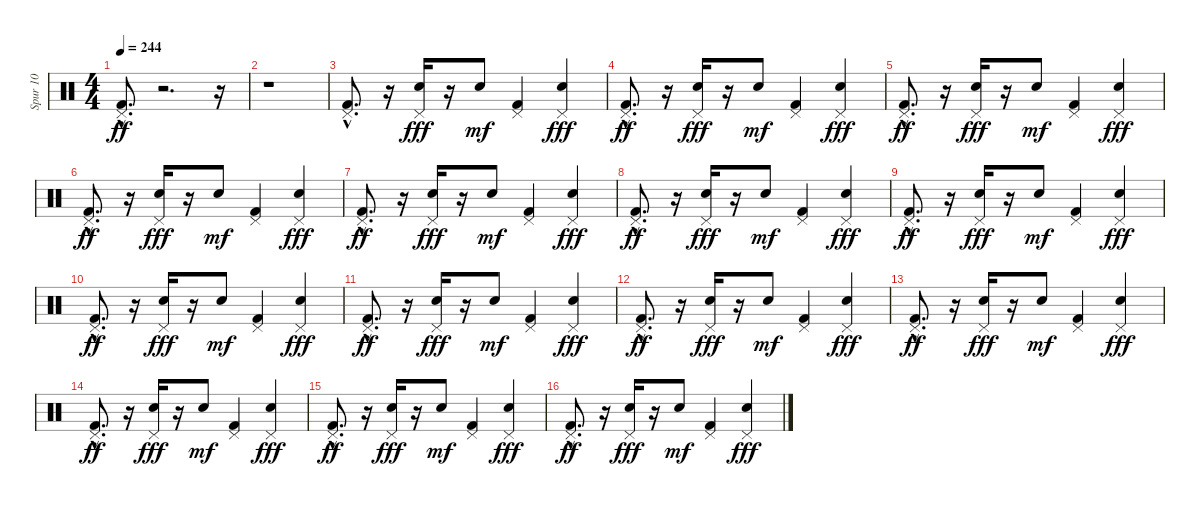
\track ("Spur 10" "Spur 10") {instrument percussion}
\staff {score}
\articulation defaults
\ts (4 4)
\tempo 244
\clef neutral
\ks c
("Pedal Hi-Hat (hit)" "Kick (hit) 2"{hac}).8{d dy ff} r.2{d} r.16 |
r.1 |
("Pedal Hi-Hat (hit)" "Kick (hit) 2"{hac}).8{d} r.16 ("Pedal Hi-Hat (hit)" "Electric Snare (hit)").16{dy fff} r.16 "Electric Snare (hit)".8{dy mf} ("Pedal Hi-Hat (hit)" "Kick (hit) 2").4 ("Pedal Hi-Hat (hit)" "Electric Snare (hit)").4{dy fff} |
("Pedal Hi-Hat (hit)" "Kick (hit) 2"{hac}).8{d dy ff} r.16 ("Pedal Hi-Hat (hit)" "Electric Snare (hit)").16{dy fff} r.16 "Electric Snare (hit)".8{dy mf} ("Pedal Hi-Hat (hit)" "Kick (hit) 2").4 ("Pedal Hi-Hat (hit)" "Electric Snare (hit)").4{dy fff} |
("Pedal Hi-Hat (hit)" "Kick (hit) 2"{hac}).8{d dy ff} r.16 ("Pedal Hi-Hat (hit)" "Electric Snare (hit)").16{dy fff} r.16 "Electric Snare (hit)".8{dy mf} ("Pedal Hi-Hat (hit)" "Kick (hit) 2").4 ("Pedal Hi-Hat (hit)" "Electric Snare (hit)").4{dy fff} |
("Pedal Hi-Hat (hit)" "Kick (hit) 2"{hac}).8{d dy ff} r.16 ("Pedal Hi-Hat (hit)" "Electric Snare (hit)").16{dy fff} r.16 "Electric Snare (hit)".8{dy mf} ("Pedal Hi-Hat (hit)" "Kick (hit) 2").4 ("Pedal Hi-Hat (hit)" "Electric Snare (hit)").4{dy fff} |
("Pedal Hi-Hat (hit)" "Kick (hit) 2"{hac}).8{d dy ff} r.16 ("Pedal Hi-Hat (hit)" "Electric Snare (hit)").16{dy fff} r.16 "Electric Snare (hit)".8{dy mf} ("Pedal Hi-Hat (hit)" "Kick (hit) 2").4 ("Pedal Hi-Hat (hit)" "Electric Snare (hit)").4{dy fff} |
("Pedal Hi-Hat (hit)" "Kick (hit) 2"{hac}).8{d dy ff} r.16 ("Pedal Hi-Hat (hit)" "Electric Snare (hit)").16{dy fff} r.16 "Electric Snare (hit)".8{dy mf} ("Pedal Hi-Hat (hit)" "Kick (hit) 2").4 ("Pedal Hi-Hat (hit)" "Electric Snare (hit)").4{dy fff} |
("Pedal Hi-Hat (hit)" "Kick (hit) 2"{hac}).8{d dy ff} r.16 ("Pedal Hi-Hat (hit)" "Electric Snare (hit)").16{dy fff} r.16 "Electric Snare (hit)".8{dy mf} ("Pedal Hi-Hat (hit)" "Kick (hit) 2").4 ("Pedal Hi-Hat (hit)" "Electric Snare (hit)").4{dy fff} |
("Pedal Hi-Hat (hit)" "Kick (hit) 2"{hac}).8{d dy ff} r.16 ("Pedal Hi-Hat (hit)" "Electric Snare (hit)").16{dy fff} r.16 "Electric Snare (hit)".8{dy mf} ("Pedal Hi-Hat (hit)" "Kick (hit) 2").4 ("Pedal Hi-Hat (hit)" "Electric Snare (hit)").4{dy fff} |
("Pedal Hi-Hat (hit)" "Kick (hit) 2"{hac}).8{d dy ff} r.16 ("Pedal Hi-Hat (hit)" "Electric Snare (hit)").16{dy fff} r.16 "Electric Snare (hit)".8{dy mf} ("Pedal Hi-Hat (hit)" "Kick (hit) 2").4 ("Pedal Hi-Hat (hit)" "Electric Snare (hit)").4{dy fff} |
("Pedal Hi-Hat (hit)" "Kick (hit) 2"{hac}).8{d dy ff} r.16 ("Pedal Hi-Hat (hit)" "Electric Snare (hit)").16{dy fff} r.16 "Electric Snare (hit)".8{dy mf} ("Pedal Hi-Hat (hit)" "Kick (hit) 2").4 ("Pedal Hi-Hat (hit)" "Electric Snare (hit)").4{dy fff} |
("Pedal Hi-Hat (hit)" "Kick (hit) 2"{hac}).8{d dy ff} r.16 ("Pedal Hi-Hat (hit)" "Electric Snare (hit)").16{dy fff} r.16 "Electric Snare (hit)".8{dy mf} ("Pedal Hi-Hat (hit)" "Kick (hit) 2").4 ("Pedal Hi-Hat (hit)" "Electric Snare (hit)").4{dy fff} |
("Pedal Hi-Hat (hit)" "Kick (hit) 2"{hac}).8{d dy ff} r.16 ("Pedal Hi-Hat (hit)" "Electric Snare (hit)").16{dy fff} r.16 "Electric Snare (hit)".8{dy mf} ("Pedal Hi-Hat (hit)" "Kick (hit) 2").4 ("Pedal Hi-Hat (hit)" "Electric Snare (hit)").4{dy fff} |
("Pedal Hi-Hat (hit)" "Kick (hit) 2"{hac}).8{d dy ff} r.16 ("Pedal Hi-Hat (hit)" "Electric Snare (hit)").16{dy fff} r.16 "Electric Snare (hit)".8{dy mf} ("Pedal Hi-Hat (hit)" "Kick (hit) 2").4 ("Pedal Hi-Hat (hit)" "Electric Snare (hit)").4{dy fff} |
("Pedal Hi-Hat (hit)" "Kick (hit) 2"{hac}).8{d dy ff} r.16 ("Pedal Hi-Hat (hit)" "Electric Snare (hit)").16{dy fff} r.16 "Electric Snare (hit)".8{dy mf} ("Pedal Hi-Hat (hit)" "Kick (hit) 2").4 ("Pedal Hi-Hat (hit)" "Electric Snare (hit)").4{dy fff}
